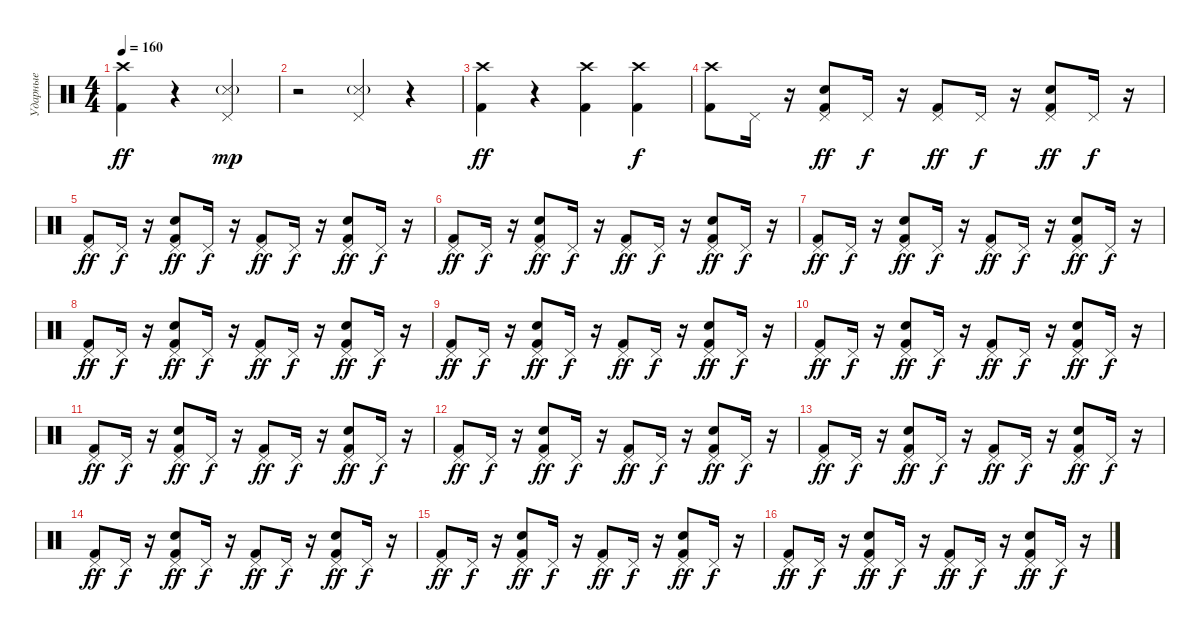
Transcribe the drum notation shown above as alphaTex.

\track ("Ударные" "Ударные") {instrument percussion}
\staff {score}
\articulation defaults
\ts (4 4)
\tempo 160
\clef neutral
\ks c
("Kick (hit) 2" "Crash high (hit)").4{dy ff} r.4 ("Pedal Hi-Hat (hit)" "Snare (side stick) 3"{g}).4{dy mp} |
r.2 ("Pedal Hi-Hat (hit)" "Snare (side stick) 3"{g}).4 r.4 |
("Kick (hit) 2" "Crash high (hit)").4{dy ff} r.4 ("Kick (hit) 2" "Crash high (hit)").4 ("Kick (hit) 2" "Crash high (hit)").4{dy f} |
("Kick (hit) 2" "Crash high (hit)").8 "Pedal Hi-Hat (hit)".16 r.16 ("Kick (hit) 2" "Snare (hit) 2" "Pedal Hi-Hat (hit)").8{dy ff} "Pedal Hi-Hat (hit)".16{dy f} r.16 ("Kick (hit) 2" "Pedal Hi-Hat (hit)").8{dy ff} "Pedal Hi-Hat (hit)".16{dy f} r.16 ("Snare (hit) 2" "Kick (hit) 2" "Pedal Hi-Hat (hit)").8{dy ff} "Pedal Hi-Hat (hit)".16{dy f} r.16 |
("Kick (hit) 2" "Pedal Hi-Hat (hit)").8{dy ff} "Pedal Hi-Hat (hit)".16{dy f} r.16 ("Kick (hit) 2" "Snare (hit) 2" "Pedal Hi-Hat (hit)").8{dy ff} "Pedal Hi-Hat (hit)".16{dy f} r.16 ("Kick (hit) 2" "Pedal Hi-Hat (hit)").8{dy ff} "Pedal Hi-Hat (hit)".16{dy f} r.16 ("Snare (hit) 2" "Kick (hit) 2" "Pedal Hi-Hat (hit)").8{dy ff} "Pedal Hi-Hat (hit)".16{dy f} r.16 |
("Kick (hit) 2" "Pedal Hi-Hat (hit)").8{dy ff} "Pedal Hi-Hat (hit)".16{dy f} r.16 ("Kick (hit) 2" "Snare (hit) 2" "Pedal Hi-Hat (hit)").8{dy ff} "Pedal Hi-Hat (hit)".16{dy f} r.16 ("Kick (hit) 2" "Pedal Hi-Hat (hit)").8{dy ff} "Pedal Hi-Hat (hit)".16{dy f} r.16 ("Snare (hit) 2" "Kick (hit) 2" "Pedal Hi-Hat (hit)").8{dy ff} "Pedal Hi-Hat (hit)".16{dy f} r.16 |
("Kick (hit) 2" "Pedal Hi-Hat (hit)").8{dy ff} "Pedal Hi-Hat (hit)".16{dy f} r.16 ("Snare (hit) 2" "Kick (hit) 2" "Pedal Hi-Hat (hit)").8{dy ff} "Pedal Hi-Hat (hit)".16{dy f} r.16 ("Kick (hit) 2" "Pedal Hi-Hat (hit)").8{dy ff} "Pedal Hi-Hat (hit)".16{dy f} r.16 ("Kick (hit) 2" "Snare (hit) 2" "Pedal Hi-Hat (hit)").8{dy ff} "Pedal Hi-Hat (hit)".16{dy f} r.16 |
("Kick (hit) 2" "Pedal Hi-Hat (hit)").8{dy ff} "Pedal Hi-Hat (hit)".16{dy f} r.16 ("Kick (hit) 2" "Snare (hit) 2" "Pedal Hi-Hat (hit)").8{dy ff} "Pedal Hi-Hat (hit)".16{dy f} r.16 ("Kick (hit) 2" "Pedal Hi-Hat (hit)").8{dy ff} "Pedal Hi-Hat (hit)".16{dy f} r.16 ("Kick (hit) 2" "Snare (hit) 2" "Pedal Hi-Hat (hit)").8{dy ff} "Pedal Hi-Hat (hit)".16{dy f} r.16 |
("Kick (hit) 2" "Pedal Hi-Hat (hit)").8{dy ff} "Pedal Hi-Hat (hit)".16{dy f} r.16 ("Kick (hit) 2" "Snare (hit) 2" "Pedal Hi-Hat (hit)").8{dy ff} "Pedal Hi-Hat (hit)".16{dy f} r.16 ("Kick (hit) 2" "Pedal Hi-Hat (hit)").8{dy ff} "Pedal Hi-Hat (hit)".16{dy f} r.16 ("Snare (hit) 2" "Kick (hit) 2" "Pedal Hi-Hat (hit)").8{dy ff} "Pedal Hi-Hat (hit)".16{dy f} r.16 |
("Kick (hit) 2" "Pedal Hi-Hat (hit)").8{dy ff} "Pedal Hi-Hat (hit)".16{dy f} r.16 ("Snare (hit) 2" "Kick (hit) 2" "Pedal Hi-Hat (hit)").8{dy ff} "Pedal Hi-Hat (hit)".16{dy f} r.16 ("Kick (hit) 2" "Pedal Hi-Hat (hit)").8{dy ff} "Pedal Hi-Hat (hit)".16{dy f} r.16 ("Kick (hit) 2" "Snare (hit) 2" "Pedal Hi-Hat (hit)").8{dy ff} "Pedal Hi-Hat (hit)".16{dy f} r.16 |
("Kick (hit) 2" "Pedal Hi-Hat (hit)").8{dy ff} "Pedal Hi-Hat (hit)".16{dy f} r.16 ("Kick (hit) 2" "Snare (hit) 2" "Pedal Hi-Hat (hit)").8{dy ff} "Pedal Hi-Hat (hit)".16{dy f} r.16 ("Kick (hit) 2" "Pedal Hi-Hat (hit)").8{dy ff} "Pedal Hi-Hat (hit)".16{dy f} r.16 ("Kick (hit) 2" "Snare (hit) 2" "Pedal Hi-Hat (hit)").8{dy ff} "Pedal Hi-Hat (hit)".16{dy f} r.16 |
("Kick (hit) 2" "Pedal Hi-Hat (hit)").8{dy ff} "Pedal Hi-Hat (hit)".16{dy f} r.16 ("Snare (hit) 2" "Kick (hit) 2" "Pedal Hi-Hat (hit)").8{dy ff} "Pedal Hi-Hat (hit)".16{dy f} r.16 ("Kick (hit) 2" "Pedal Hi-Hat (hit)").8{dy ff} "Pedal Hi-Hat (hit)".16{dy f} r.16 ("Kick (hit) 2" "Snare (hit) 2" "Pedal Hi-Hat (hit)").8{dy ff} "Pedal Hi-Hat (hit)".16{dy f} r.16 |
("Kick (hit) 2" "Pedal Hi-Hat (hit)").8{dy ff} "Pedal Hi-Hat (hit)".16{dy f} r.16 ("Kick (hit) 2" "Snare (hit) 2" "Pedal Hi-Hat (hit)").8{dy ff} "Pedal Hi-Hat (hit)".16{dy f} r.16 ("Kick (hit) 2" "Pedal Hi-Hat (hit)").8{dy ff} "Pedal Hi-Hat (hit)".16{dy f} r.16 ("Kick (hit) 2" "Snare (hit) 2" "Pedal Hi-Hat (hit)").8{dy ff} "Pedal Hi-Hat (hit)".16{dy f} r.16 |
("Kick (hit) 2" "Pedal Hi-Hat (hit)").8{dy ff} "Pedal Hi-Hat (hit)".16{dy f} r.16 ("Kick (hit) 2" "Snare (hit) 2" "Pedal Hi-Hat (hit)").8{dy ff} "Pedal Hi-Hat (hit)".16{dy f} r.16 ("Kick (hit) 2" "Pedal Hi-Hat (hit)").8{dy ff} "Pedal Hi-Hat (hit)".16{dy f} r.16 ("Snare (hit) 2" "Kick (hit) 2" "Pedal Hi-Hat (hit)").8{dy ff} "Pedal Hi-Hat (hit)".16{dy f} r.16 |
("Kick (hit) 2" "Pedal Hi-Hat (hit)").8{dy ff} "Pedal Hi-Hat (hit)".16{dy f} r.16 ("Kick (hit) 2" "Snare (hit) 2" "Pedal Hi-Hat (hit)").8{dy ff} "Pedal Hi-Hat (hit)".16{dy f} r.16 ("Kick (hit) 2" "Pedal Hi-Hat (hit)").8{dy ff} "Pedal Hi-Hat (hit)".16{dy f} r.16 ("Kick (hit) 2" "Snare (hit) 2" "Pedal Hi-Hat (hit)").8{dy ff} "Pedal Hi-Hat (hit)".16{dy f} r.16 |
("Kick (hit) 2" "Pedal Hi-Hat (hit)").8{dy ff} "Pedal Hi-Hat (hit)".16{dy f} r.16 ("Kick (hit) 2" "Snare (hit) 2" "Pedal Hi-Hat (hit)").8{dy ff} "Pedal Hi-Hat (hit)".16{dy f} r.16 ("Kick (hit) 2" "Pedal Hi-Hat (hit)").8{dy ff} "Pedal Hi-Hat (hit)".16{dy f} r.16 ("Snare (hit) 2" "Kick (hit) 2" "Pedal Hi-Hat (hit)").8{dy ff} "Pedal Hi-Hat (hit)".16{dy f} r.16
